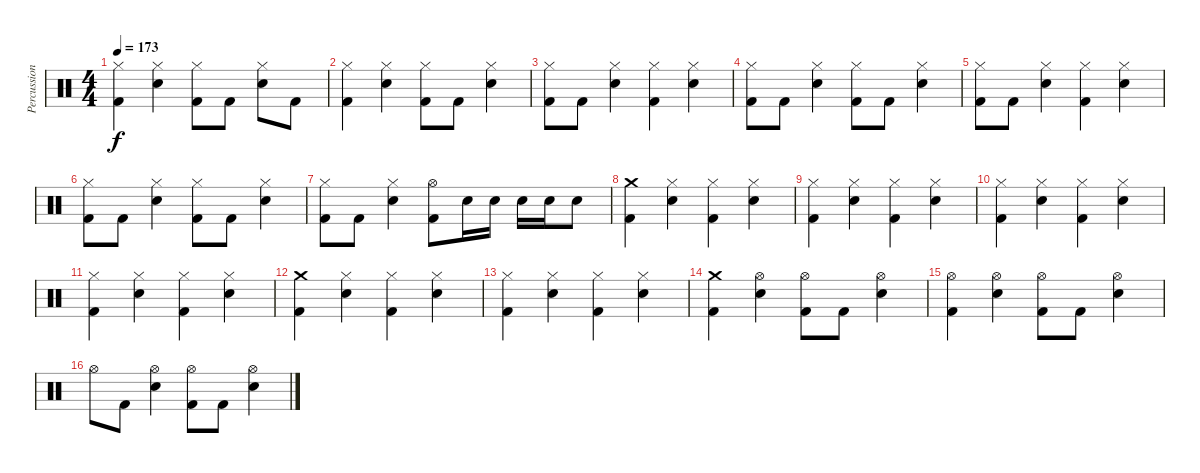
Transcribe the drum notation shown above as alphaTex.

\track ("Percussion" "Percussion") {instrument percussion}
\staff {score}
\articulation defaults
\ts (4 4)
\tempo 173
\clef neutral
\ks c
("Hi-Hat (closed)" "Kick (hit) 2").4{dy f} ("Hi-Hat (closed)" "Electric Snare (hit)").4 ("Hi-Hat (closed)" "Kick (hit) 2").8 "Kick (hit) 2".8 ("Hi-Hat (closed)" "Electric Snare (hit)").8 "Kick (hit) 2".8 |
("Hi-Hat (closed)" "Kick (hit) 2").4 ("Hi-Hat (closed)" "Electric Snare (hit)").4 ("Hi-Hat (closed)" "Kick (hit) 2").8 "Kick (hit) 2".8 ("Hi-Hat (closed)" "Electric Snare (hit)").4 |
("Hi-Hat (closed)" "Kick (hit) 2").8 "Kick (hit) 2".8 ("Hi-Hat (closed)" "Electric Snare (hit)").4 ("Hi-Hat (closed)" "Kick (hit) 2").4 ("Hi-Hat (closed)" "Electric Snare (hit)").4 |
("Hi-Hat (closed)" "Kick (hit) 2").8 "Kick (hit) 2".8 ("Hi-Hat (closed)" "Electric Snare (hit)").4 ("Hi-Hat (closed)" "Kick (hit) 2").8 "Kick (hit) 2".8 ("Hi-Hat (closed)" "Electric Snare (hit)").4 |
("Hi-Hat (closed)" "Kick (hit) 2").8 "Kick (hit) 2".8 ("Hi-Hat (closed)" "Electric Snare (hit)").4 ("Hi-Hat (closed)" "Kick (hit) 2").4 ("Hi-Hat (closed)" "Electric Snare (hit)").4 |
("Hi-Hat (closed)" "Kick (hit) 2").8 "Kick (hit) 2".8 ("Hi-Hat (closed)" "Electric Snare (hit)").4 ("Hi-Hat (closed)" "Kick (hit) 2").8 "Kick (hit) 2".8 ("Hi-Hat (closed)" "Electric Snare (hit)").4 |
("Hi-Hat (closed)" "Kick (hit) 2").8 "Kick (hit) 2".8 ("Hi-Hat (closed)" "Electric Snare (hit)").4 ("Hi-Hat (open)" "Kick (hit) 2").8 "Electric Snare (hit)".16 "Electric Snare (hit)".16 "Electric Snare (hit)".16 "Electric Snare (hit)".16 "Electric Snare (hit)".8 |
("Crash medium (hit)" "Kick (hit) 2").4 ("Hi-Hat (closed)" "Electric Snare (hit)").4 ("Hi-Hat (closed)" "Kick (hit) 2").4 ("Hi-Hat (closed)" "Electric Snare (hit)").4 |
("Hi-Hat (closed)" "Kick (hit) 2").4 ("Hi-Hat (closed)" "Electric Snare (hit)").4 ("Hi-Hat (closed)" "Kick (hit) 2").4 ("Hi-Hat (closed)" "Electric Snare (hit)").4 |
("Hi-Hat (closed)" "Kick (hit) 2").4 ("Hi-Hat (closed)" "Electric Snare (hit)").4 ("Hi-Hat (closed)" "Kick (hit) 2").4 ("Hi-Hat (closed)" "Electric Snare (hit)").4 |
("Hi-Hat (closed)" "Kick (hit) 2").4 ("Hi-Hat (closed)" "Electric Snare (hit)").4 ("Hi-Hat (closed)" "Kick (hit) 2").4 ("Hi-Hat (closed)" "Electric Snare (hit)").4 |
("Crash medium (hit)" "Kick (hit) 2").4 ("Hi-Hat (closed)" "Electric Snare (hit)").4 ("Hi-Hat (closed)" "Kick (hit) 2").4 ("Hi-Hat (closed)" "Electric Snare (hit)").4 |
("Hi-Hat (closed)" "Kick (hit) 2").4 ("Hi-Hat (closed)" "Electric Snare (hit)").4 ("Hi-Hat (closed)" "Kick (hit) 2").4 ("Hi-Hat (closed)" "Electric Snare (hit)").4 |
("Crash medium (hit)" "Kick (hit) 2").4 ("Hi-Hat (open)" "Electric Snare (hit)").4 ("Hi-Hat (open)" "Kick (hit) 2").8 "Kick (hit) 2".8 ("Hi-Hat (open)" "Electric Snare (hit)").4 |
("Hi-Hat (open)" "Kick (hit) 2").4 ("Hi-Hat (open)" "Electric Snare (hit)").4 ("Hi-Hat (open)" "Kick (hit) 2").8 "Kick (hit) 2".8 ("Hi-Hat (open)" "Electric Snare (hit)").4 |
"Hi-Hat (open)".8 "Kick (hit) 2".8 ("Hi-Hat (open)" "Electric Snare (hit)").4 ("Hi-Hat (open)" "Kick (hit) 2").8 "Kick (hit) 2".8 ("Hi-Hat (open)" "Electric Snare (hit)").4
